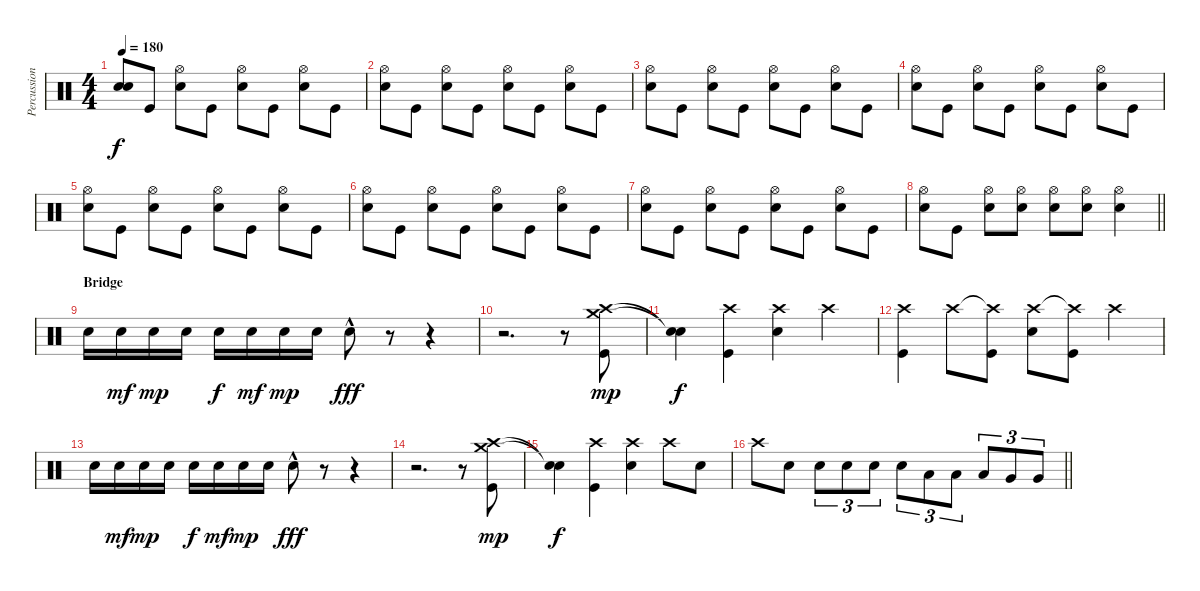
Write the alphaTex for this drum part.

\track ("Percussion" "Percussion") {instrument percussion}
\staff {score}
\articulation defaults
\ts (4 4)
\tempo 180
\clef neutral
\ks c
("Snare (hit)"{t} "Snare (hit)"{t}).8{dy f} "Kick (hit)".8 ("Hi-Hat (open)" "Snare (hit) 2").8 "Kick (hit)".8 ("Hi-Hat (open)" "Snare (hit) 2").8 "Kick (hit)".8 ("Hi-Hat (open)" "Snare (hit) 2").8 "Kick (hit)".8 |
("Hi-Hat (open)" "Snare (hit) 2").8 "Kick (hit)".8 ("Hi-Hat (open)" "Snare (hit) 2").8 "Kick (hit)".8 ("Hi-Hat (open)" "Snare (hit) 2").8 "Kick (hit)".8 ("Hi-Hat (open)" "Snare (hit) 2").8 "Kick (hit)".8 |
("Hi-Hat (open)" "Snare (hit) 2").8 "Kick (hit)".8 ("Hi-Hat (open)" "Snare (hit) 2").8 "Kick (hit)".8 ("Hi-Hat (open)" "Snare (hit) 2").8 "Kick (hit)".8 ("Hi-Hat (open)" "Snare (hit) 2").8 "Kick (hit)".8 |
("Hi-Hat (open)" "Snare (hit) 2").8 "Kick (hit)".8 ("Hi-Hat (open)" "Snare (hit) 2").8 "Kick (hit)".8 ("Hi-Hat (open)" "Snare (hit) 2").8 "Kick (hit)".8 ("Hi-Hat (open)" "Snare (hit) 2").8 "Kick (hit)".8 |
("Hi-Hat (open)" "Snare (hit) 2").8 "Kick (hit)".8 ("Hi-Hat (open)" "Snare (hit) 2").8 "Kick (hit)".8 ("Hi-Hat (open)" "Snare (hit) 2").8 "Kick (hit)".8 ("Hi-Hat (open)" "Snare (hit) 2").8 "Kick (hit)".8 |
("Hi-Hat (open)" "Snare (hit) 2").8 "Kick (hit)".8 ("Hi-Hat (open)" "Snare (hit) 2").8 "Kick (hit)".8 ("Hi-Hat (open)" "Snare (hit) 2").8 "Kick (hit)".8 ("Hi-Hat (open)" "Snare (hit) 2").8 "Kick (hit)".8 |
("Hi-Hat (open)" "Snare (hit) 2").8 "Kick (hit)".8 ("Hi-Hat (open)" "Snare (hit) 2").8 "Kick (hit)".8 ("Hi-Hat (open)" "Snare (hit) 2").8 "Kick (hit)".8 ("Hi-Hat (open)" "Snare (hit) 2").8 "Kick (hit)".8 |
\barLineRight lightlight
("Hi-Hat (open)" "Snare (hit) 2").8 "Kick (hit)".8 ("Hi-Hat (open)" "Snare (hit) 2").8 ("Hi-Hat (open)" "Snare (hit) 2").8 ("Hi-Hat (open)" "Snare (hit) 2").8 ("Hi-Hat (open)" "Snare (hit) 2").8 ("Hi-Hat (open)" "Snare (hit) 2").4 |
\section ("" "Bridge")
"Snare (hit) 2".16 "Snare (hit) 2".16{dy mf} "Snare (hit) 2".16{dy mp} "Snare (hit) 2".16 "Snare (hit) 2".16{dy f} "Snare (hit) 2".16{dy mf} "Snare (hit) 2".16{dy mp} "Snare (hit) 2".16 "Snare (hit) 2"{hac}.8{dy fff} r.8 r.4 |
r.2{d} r.8 ("Crash medium (hit)" "Crash high (hit)" "Kick (hit)").8{dy mp} |
("Snare (hit)"{t} "Snare (hit)"{t}).4{dy f} ("Crash high (hit)" "Kick (hit)").4 ("Crash high (hit)" "Snare (hit) 2").4 "Crash high (hit)".4 |
("Crash high (hit)" "Kick (hit)").4 "Crash high (hit)".8 ("Crash high (hit)"{t} "Kick (hit)").8 ("Crash high (hit)" "Snare (hit) 2").8 ("Crash high (hit)"{t} "Kick (hit)").8 "Crash high (hit)".4 |
"Snare (hit) 2".16 "Snare (hit) 2".16{dy mf} "Snare (hit) 2".16{dy mp} "Snare (hit) 2".16 "Snare (hit) 2".16{dy f} "Snare (hit) 2".16{dy mf} "Snare (hit) 2".16{dy mp} "Snare (hit) 2".16 "Snare (hit) 2"{hac}.8{dy fff} r.8 r.4 |
r.2{d} r.8 ("Crash medium (hit)" "Crash high (hit)" "Kick (hit)").8{dy mp} |
("Snare (hit)"{t} "Snare (hit)"{t}).4{dy f} ("Crash high (hit)" "Kick (hit)").4 ("Crash high (hit)" "Snare (hit) 2").4 "Crash high (hit)".8 "Snare (hit) 2".8 |
\barLineRight lightlight "Crash high (hit)".8 "Snare (hit) 2".8 "Snare (hit) 2".8{tu (3 2)} "Snare (hit) 2".8{tu (3 2)} "Snare (hit) 2".8{tu (3 2)} "Snare (hit) 2".8{tu (3 2)} "Low Tom (hit)".8{tu (3 2)} "Low Tom (hit)".8{tu (3 2)} "Low Tom (hit)".8{tu (3 2)} "Very Low Tom (hit)".8{tu (3 2)} "Very Low Tom (hit)".8{tu (3 2)}
